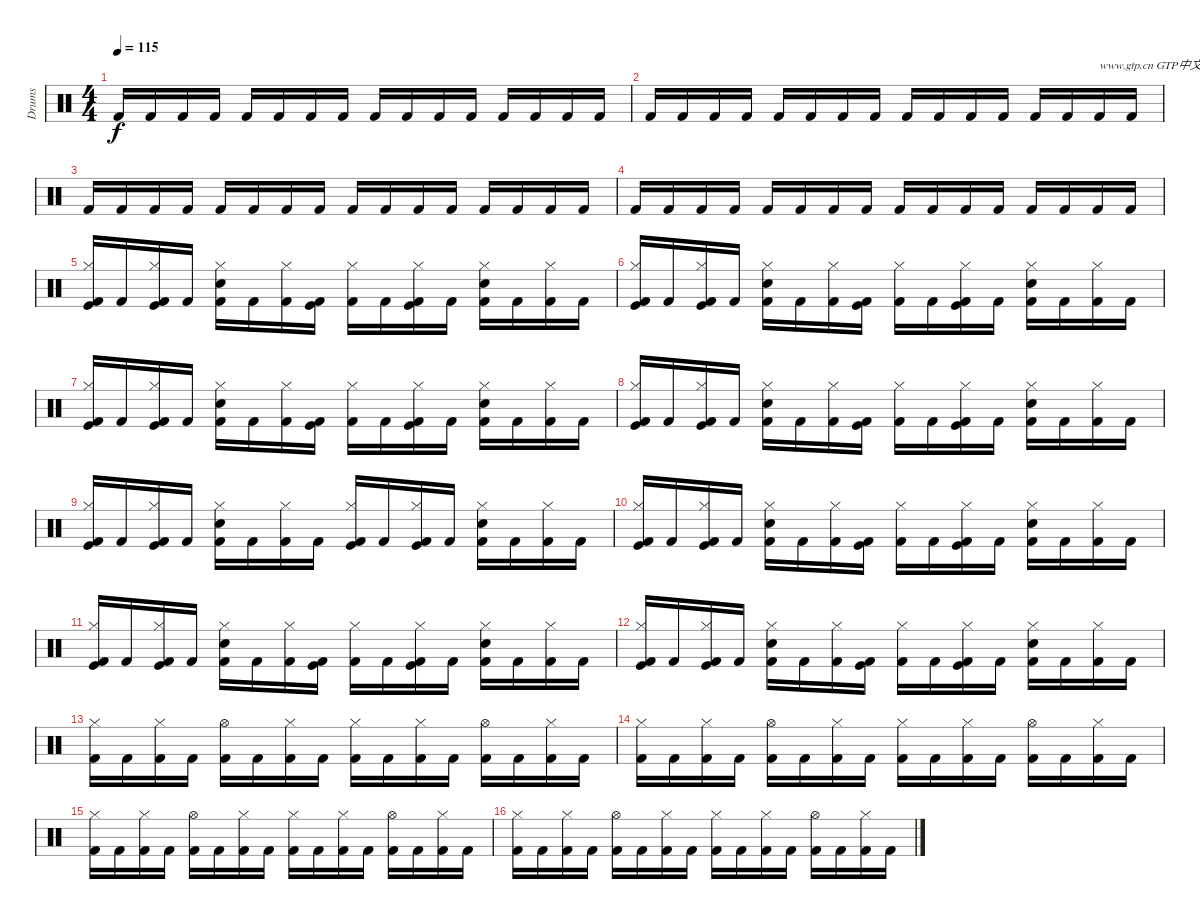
\track ("Drums" "Drums") {instrument percussion}
\staff {score}
\articulation defaults
\ts (4 4)
\tempo 115
\clef neutral
\ks c "Kick (hit) 2".16{dy f} "Kick (hit) 2".16 "Kick (hit) 2".16 "Kick (hit) 2".16 "Kick (hit) 2".16 "Kick (hit) 2".16 "Kick (hit) 2".16 "Kick (hit) 2".16 "Kick (hit) 2".16 "Kick (hit) 2".16 "Kick (hit) 2".16 "Kick (hit) 2".16 "Kick (hit) 2".16 "Kick (hit) 2".16 "Kick (hit) 2".16 "Kick (hit) 2".16
|
"Kick (hit) 2".16 "Kick (hit) 2".16 "Kick (hit) 2".16 "Kick (hit) 2".16 "Kick (hit) 2".16 "Kick (hit) 2".16 "Kick (hit) 2".16 "Kick (hit) 2".16 "Kick (hit) 2".16 "Kick (hit) 2".16 "Kick (hit) 2".16 "Kick (hit) 2".16 "Kick (hit) 2".16 "Kick (hit) 2".16 "Kick (hit) 2".16{txt "www.gtp.cn GTP中文网为您提供优秀的谱子"} "Kick (hit) 2".16 |
"Kick (hit) 2".16 "Kick (hit) 2".16 "Kick (hit) 2".16 "Kick (hit) 2".16 "Kick (hit) 2".16 "Kick (hit) 2".16 "Kick (hit) 2".16 "Kick (hit) 2".16 "Kick (hit) 2".16 "Kick (hit) 2".16 "Kick (hit) 2".16 "Kick (hit) 2".16 "Kick (hit) 2".16 "Kick (hit) 2".16 "Kick (hit) 2".16 "Kick (hit) 2".16 |
"Kick (hit) 2".16 "Kick (hit) 2".16 "Kick (hit) 2".16 "Kick (hit) 2".16 "Kick (hit) 2".16 "Kick (hit) 2".16 "Kick (hit) 2".16 "Kick (hit) 2".16 "Kick (hit) 2".16 "Kick (hit) 2".16 "Kick (hit) 2".16 "Kick (hit) 2".16 "Kick (hit) 2".16 "Kick (hit) 2".16 "Kick (hit) 2".16 "Kick (hit) 2".16 |
("Kick (hit) 2" "Hi-Hat (closed)" "Kick (hit)").16 "Kick (hit) 2".16 ("Kick (hit) 2" "Hi-Hat (closed)" "Kick (hit)").16 "Kick (hit) 2".16 ("Kick (hit) 2" "Hi-Hat (closed)" "Snare (hit) 2").16 "Kick (hit) 2".16 ("Kick (hit) 2" "Hi-Hat (closed)").16 ("Kick (hit) 2" "Kick (hit)").16 ("Kick (hit) 2" "Hi-Hat (closed)").16 "Kick (hit) 2".16 ("Kick (hit) 2" "Hi-Hat (closed)" "Kick (hit)").16 "Kick (hit) 2".16 ("Kick (hit) 2" "Hi-Hat (closed)" "Snare (hit) 2").16 "Kick (hit) 2".16 ("Kick (hit) 2" "Hi-Hat (closed)").16 "Kick (hit) 2".16 |
("Kick (hit)" "Hi-Hat (closed)" "Kick (hit) 2").16 "Kick (hit) 2".16 ("Kick (hit) 2" "Hi-Hat (closed)" "Kick (hit)").16 "Kick (hit) 2".16 ("Kick (hit) 2" "Hi-Hat (closed)" "Snare (hit) 2").16 "Kick (hit) 2".16 ("Kick (hit) 2" "Hi-Hat (closed)").16 ("Kick (hit) 2" "Kick (hit)").16 ("Kick (hit) 2" "Hi-Hat (closed)").16 "Kick (hit) 2".16 ("Kick (hit) 2" "Hi-Hat (closed)" "Kick (hit)").16 "Kick (hit) 2".16 ("Kick (hit) 2" "Hi-Hat (closed)" "Snare (hit) 2").16 "Kick (hit) 2".16 ("Kick (hit) 2" "Hi-Hat (closed)").16 "Kick (hit) 2".16 |
("Kick (hit)" "Hi-Hat (closed)" "Kick (hit) 2").16 "Kick (hit) 2".16 ("Kick (hit) 2" "Hi-Hat (closed)" "Kick (hit)").16 "Kick (hit) 2".16 ("Kick (hit) 2" "Hi-Hat (closed)" "Snare (hit) 2").16 "Kick (hit) 2".16 ("Kick (hit) 2" "Hi-Hat (closed)").16 ("Kick (hit) 2" "Kick (hit)").16 ("Kick (hit) 2" "Hi-Hat (closed)").16 "Kick (hit) 2".16 ("Kick (hit) 2" "Hi-Hat (closed)" "Kick (hit)").16 "Kick (hit) 2".16 ("Kick (hit) 2" "Hi-Hat (closed)" "Snare (hit) 2").16 "Kick (hit) 2".16 ("Kick (hit) 2" "Hi-Hat (closed)").16 "Kick (hit) 2".16 |
("Kick (hit)" "Hi-Hat (closed)" "Kick (hit) 2").16 "Kick (hit) 2".16 ("Kick (hit) 2" "Hi-Hat (closed)" "Kick (hit)").16 "Kick (hit) 2".16 ("Kick (hit) 2" "Hi-Hat (closed)" "Snare (hit) 2").16 "Kick (hit) 2".16 ("Kick (hit) 2" "Hi-Hat (closed)").16 ("Kick (hit) 2" "Kick (hit)").16 ("Kick (hit) 2" "Hi-Hat (closed)").16 "Kick (hit) 2".16 ("Kick (hit) 2" "Hi-Hat (closed)" "Kick (hit)").16 "Kick (hit) 2".16 ("Kick (hit) 2" "Hi-Hat (closed)" "Snare (hit) 2").16 "Kick (hit) 2".16 ("Kick (hit) 2" "Hi-Hat (closed)").16 "Kick (hit) 2".16 |
("Hi-Hat (closed)" "Kick (hit)" "Kick (hit) 2").16 "Kick (hit) 2".16 ("Hi-Hat (closed)" "Kick (hit)" "Kick (hit) 2").16 "Kick (hit) 2".16 ("Hi-Hat (closed)" "Snare (hit) 2" "Kick (hit) 2").16 "Kick (hit) 2".16 ("Hi-Hat (closed)" "Kick (hit) 2").16 "Kick (hit) 2".16 ("Hi-Hat (closed)" "Kick (hit)" "Kick (hit) 2").16 "Kick (hit) 2".16 ("Hi-Hat (closed)" "Kick (hit)" "Kick (hit) 2").16 "Kick (hit) 2".16 ("Hi-Hat (closed)" "Snare (hit) 2" "Kick (hit) 2").16 "Kick (hit) 2".16 ("Hi-Hat (closed)" "Kick (hit) 2").16 "Kick (hit) 2".16 |
("Hi-Hat (closed)" "Kick (hit)" "Kick (hit) 2").16 "Kick (hit) 2".16 ("Hi-Hat (closed)" "Kick (hit)" "Kick (hit) 2").16 "Kick (hit) 2".16 ("Hi-Hat (closed)" "Snare (hit) 2" "Kick (hit) 2").16 "Kick (hit) 2".16 ("Hi-Hat (closed)" "Kick (hit) 2").16 ("Kick (hit)" "Kick (hit) 2").16 ("Hi-Hat (closed)" "Kick (hit) 2").16 "Kick (hit) 2".16 ("Hi-Hat (closed)" "Kick (hit)" "Kick (hit) 2").16 "Kick (hit) 2".16 ("Hi-Hat (closed)" "Snare (hit) 2" "Kick (hit) 2").16 "Kick (hit) 2".16 ("Hi-Hat (closed)" "Kick (hit) 2").16 "Kick (hit) 2".16 |
("Hi-Hat (closed)" "Kick (hit)" "Kick (hit) 2").16 "Kick (hit) 2".16 ("Hi-Hat (closed)" "Kick (hit)" "Kick (hit) 2").16 "Kick (hit) 2".16 ("Hi-Hat (closed)" "Snare (hit) 2" "Kick (hit) 2").16 "Kick (hit) 2".16 ("Hi-Hat (closed)" "Kick (hit) 2").16 ("Kick (hit)" "Kick (hit) 2").16 ("Hi-Hat (closed)" "Kick (hit) 2").16 "Kick (hit) 2".16 ("Hi-Hat (closed)" "Kick (hit)" "Kick (hit) 2").16 "Kick (hit) 2".16 ("Hi-Hat (closed)" "Snare (hit) 2" "Kick (hit) 2").16 "Kick (hit) 2".16 ("Hi-Hat (closed)" "Kick (hit) 2").16 "Kick (hit) 2".16 |
("Hi-Hat (closed)" "Kick (hit)" "Kick (hit) 2").16 "Kick (hit) 2".16 ("Hi-Hat (closed)" "Kick (hit)" "Kick (hit) 2").16 "Kick (hit) 2".16 ("Hi-Hat (closed)" "Snare (hit) 2" "Kick (hit) 2").16 "Kick (hit) 2".16 ("Hi-Hat (closed)" "Kick (hit) 2").16 ("Kick (hit)" "Kick (hit) 2").16 ("Hi-Hat (closed)" "Kick (hit) 2").16 "Kick (hit) 2".16 ("Hi-Hat (closed)" "Kick (hit)" "Kick (hit) 2").16 "Kick (hit) 2".16 ("Hi-Hat (closed)" "Snare (hit) 2" "Kick (hit) 2").16 "Kick (hit) 2".16 ("Hi-Hat (closed)" "Kick (hit) 2").16 "Kick (hit) 2".16 |
("Kick (hit) 2" "Hi-Hat (closed)").16 "Kick (hit) 2".16 ("Kick (hit) 2" "Hi-Hat (closed)").16 "Kick (hit) 2".16 ("Kick (hit) 2" "Hi-Hat (open)").16 "Kick (hit) 2".16 ("Kick (hit) 2" "Hi-Hat (closed)").16 "Kick (hit) 2".16 ("Kick (hit) 2" "Hi-Hat (closed)").16 "Kick (hit) 2".16 ("Kick (hit) 2" "Hi-Hat (closed)").16 "Kick (hit) 2".16 ("Kick (hit) 2" "Hi-Hat (open)").16 "Kick (hit) 2".16 ("Kick (hit) 2" "Hi-Hat (closed)").16 "Kick (hit) 2".16 |
("Hi-Hat (closed)" "Kick (hit) 2").16 "Kick (hit) 2".16 ("Kick (hit) 2" "Hi-Hat (closed)").16 "Kick (hit) 2".16 ("Kick (hit) 2" "Hi-Hat (open)").16 "Kick (hit) 2".16 ("Kick (hit) 2" "Hi-Hat (closed)").16 "Kick (hit) 2".16 ("Kick (hit) 2" "Hi-Hat (closed)").16 "Kick (hit) 2".16 ("Kick (hit) 2" "Hi-Hat (closed)").16 "Kick (hit) 2".16 ("Kick (hit) 2" "Hi-Hat (open)").16 "Kick (hit) 2".16 ("Kick (hit) 2" "Hi-Hat (closed)").16 "Kick (hit) 2".16 |
("Hi-Hat (closed)" "Kick (hit) 2").16 "Kick (hit) 2".16 ("Kick (hit) 2" "Hi-Hat (closed)").16 "Kick (hit) 2".16 ("Kick (hit) 2" "Hi-Hat (open)").16 "Kick (hit) 2".16 ("Kick (hit) 2" "Hi-Hat (closed)").16 "Kick (hit) 2".16 ("Kick (hit) 2" "Hi-Hat (closed)").16 "Kick (hit) 2".16 ("Kick (hit) 2" "Hi-Hat (closed)").16 "Kick (hit) 2".16 ("Kick (hit) 2" "Hi-Hat (open)").16 "Kick (hit) 2".16 ("Kick (hit) 2" "Hi-Hat (closed)").16 "Kick (hit) 2".16 |
("Hi-Hat (closed)" "Kick (hit) 2").16 "Kick (hit) 2".16 ("Kick (hit) 2" "Hi-Hat (closed)").16 "Kick (hit) 2".16 ("Kick (hit) 2" "Hi-Hat (open)").16 "Kick (hit) 2".16 ("Kick (hit) 2" "Hi-Hat (closed)").16 "Kick (hit) 2".16 ("Kick (hit) 2" "Hi-Hat (closed)").16 "Kick (hit) 2".16 ("Kick (hit) 2" "Hi-Hat (closed)").16 "Kick (hit) 2".16 ("Kick (hit) 2" "Hi-Hat (open)").16 "Kick (hit) 2".16 ("Kick (hit) 2" "Hi-Hat (closed)").16 "Kick (hit) 2".16
